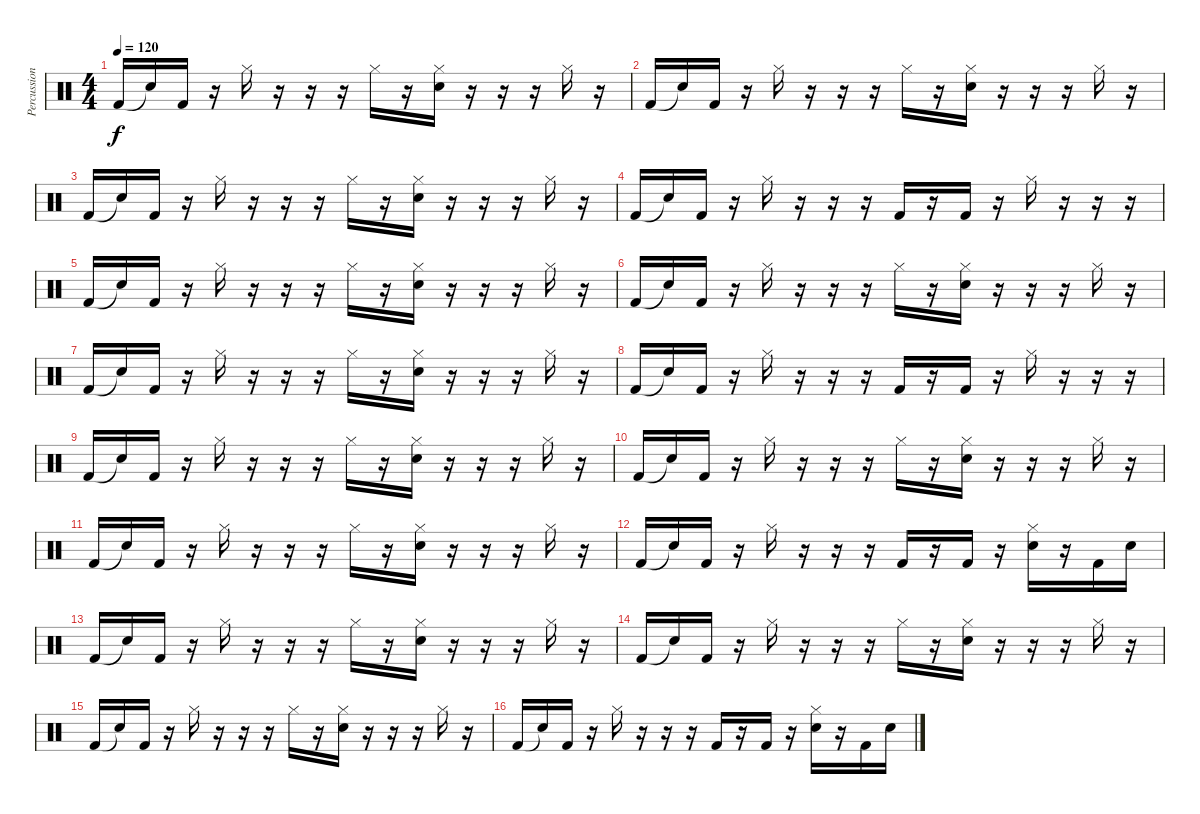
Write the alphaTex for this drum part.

\track ("Percussion" "Percussion") {instrument percussion}
\staff {score}
\articulation defaults
\ts (4 4)
\tempo 120
\clef neutral
\ks c "Kick (hit) 2".16{dy f volume 16} "Snare (hit)"{t}.16 "Kick (hit) 2".16
r.16 "Hi-Hat (closed)".16 r.16 r.16 r.16 "Hi-Hat (closed)".16 r.16 ("Hi-Hat (closed)" "Snare (hit) 2").16 r.16 r.16 r.16 "Hi-Hat (closed)".16 r.16 |
"Kick (hit) 2".16{volume 16} "Snare (hit)"{t}.16 "Kick (hit) 2".16 r.16 "Hi-Hat (closed)".16 r.16 r.16 r.16 "Hi-Hat (closed)".16 r.16 ("Hi-Hat (closed)" "Snare (hit) 2").16 r.16 r.16 r.16 "Hi-Hat (closed)".16 r.16 |
"Kick (hit) 2".16{volume 16} "Snare (hit)"{t}.16 "Kick (hit) 2".16 r.16 "Hi-Hat (closed)".16 r.16 r.16 r.16 "Hi-Hat (closed)".16 r.16 ("Hi-Hat (closed)" "Snare (hit) 2").16 r.16 r.16 r.16 "Hi-Hat (closed)".16 r.16 |
"Kick (hit) 2".16{volume 16} "Snare (hit)"{t}.16 "Kick (hit) 2".16 r.16 "Hi-Hat (closed)".16 r.16 r.16 r.16 "Kick (hit) 2".16 r.16 "Kick (hit) 2".16 r.16 "Hi-Hat (closed)".16 r.16 r.16 r.16 |
"Kick (hit) 2".16{volume 16} "Snare (hit)"{t}.16 "Kick (hit) 2".16 r.16 "Hi-Hat (closed)".16 r.16 r.16 r.16 "Hi-Hat (closed)".16 r.16 ("Hi-Hat (closed)" "Snare (hit) 2").16 r.16 r.16 r.16 "Hi-Hat (closed)".16 r.16 |
"Kick (hit) 2".16{volume 16} "Snare (hit)"{t}.16 "Kick (hit) 2".16 r.16 "Hi-Hat (closed)".16 r.16 r.16 r.16 "Hi-Hat (closed)".16 r.16 ("Hi-Hat (closed)" "Snare (hit) 2").16 r.16 r.16 r.16 "Hi-Hat (closed)".16 r.16 |
"Kick (hit) 2".16{volume 16} "Snare (hit)"{t}.16 "Kick (hit) 2".16 r.16 "Hi-Hat (closed)".16 r.16 r.16 r.16 "Hi-Hat (closed)".16 r.16 ("Hi-Hat (closed)" "Snare (hit) 2").16 r.16 r.16 r.16 "Hi-Hat (closed)".16 r.16 |
"Kick (hit) 2".16{volume 16} "Snare (hit)"{t}.16 "Kick (hit) 2".16 r.16 "Hi-Hat (closed)".16 r.16 r.16 r.16 "Kick (hit) 2".16 r.16 "Kick (hit) 2".16 r.16 "Hi-Hat (closed)".16 r.16 r.16 r.16 |
"Kick (hit) 2".16{volume 16} "Snare (hit)"{t}.16 "Kick (hit) 2".16 r.16 "Hi-Hat (closed)".16 r.16 r.16 r.16 "Hi-Hat (closed)".16 r.16 ("Hi-Hat (closed)" "Snare (hit) 2").16 r.16 r.16 r.16 "Hi-Hat (closed)".16 r.16 |
"Kick (hit) 2".16{volume 16} "Snare (hit)"{t}.16 "Kick (hit) 2".16 r.16 "Hi-Hat (closed)".16 r.16 r.16 r.16 "Hi-Hat (closed)".16 r.16 ("Hi-Hat (closed)" "Snare (hit) 2").16 r.16 r.16 r.16 "Hi-Hat (closed)".16 r.16 |
"Kick (hit) 2".16{volume 16} "Snare (hit)"{t}.16 "Kick (hit) 2".16 r.16 "Hi-Hat (closed)".16 r.16 r.16 r.16 "Hi-Hat (closed)".16 r.16 ("Hi-Hat (closed)" "Snare (hit) 2").16 r.16 r.16 r.16 "Hi-Hat (closed)".16 r.16 |
"Kick (hit) 2".16{volume 16} "Snare (hit)"{t}.16 "Kick (hit) 2".16 r.16 "Hi-Hat (closed)".16 r.16 r.16 r.16 "Kick (hit) 2".16 r.16 "Kick (hit) 2".16 r.16 ("Hi-Hat (closed)" "Snare (hit) 2").16 r.16 "Kick (hit) 2".16 "Snare (hit) 2".16 |
"Kick (hit) 2".16{volume 16} "Snare (hit)"{t}.16 "Kick (hit) 2".16 r.16 "Hi-Hat (closed)".16 r.16 r.16 r.16 "Hi-Hat (closed)".16 r.16 ("Hi-Hat (closed)" "Snare (hit) 2").16 r.16 r.16 r.16 "Hi-Hat (closed)".16 r.16 |
"Kick (hit) 2".16{volume 16} "Snare (hit)"{t}.16 "Kick (hit) 2".16 r.16 "Hi-Hat (closed)".16 r.16 r.16 r.16 "Hi-Hat (closed)".16 r.16 ("Hi-Hat (closed)" "Snare (hit) 2").16 r.16 r.16 r.16 "Hi-Hat (closed)".16 r.16 |
"Kick (hit) 2".16{volume 16} "Snare (hit)"{t}.16 "Kick (hit) 2".16 r.16 "Hi-Hat (closed)".16 r.16 r.16 r.16 "Hi-Hat (closed)".16 r.16 ("Hi-Hat (closed)" "Snare (hit) 2").16 r.16 r.16 r.16 "Hi-Hat (closed)".16 r.16 |
"Kick (hit) 2".16{volume 16} "Snare (hit)"{t}.16 "Kick (hit) 2".16 r.16 "Hi-Hat (closed)".16 r.16 r.16 r.16 "Kick (hit) 2".16 r.16 "Kick (hit) 2".16 r.16 ("Hi-Hat (closed)" "Snare (hit) 2").16 r.16 "Kick (hit) 2".16 "Snare (hit) 2".16
